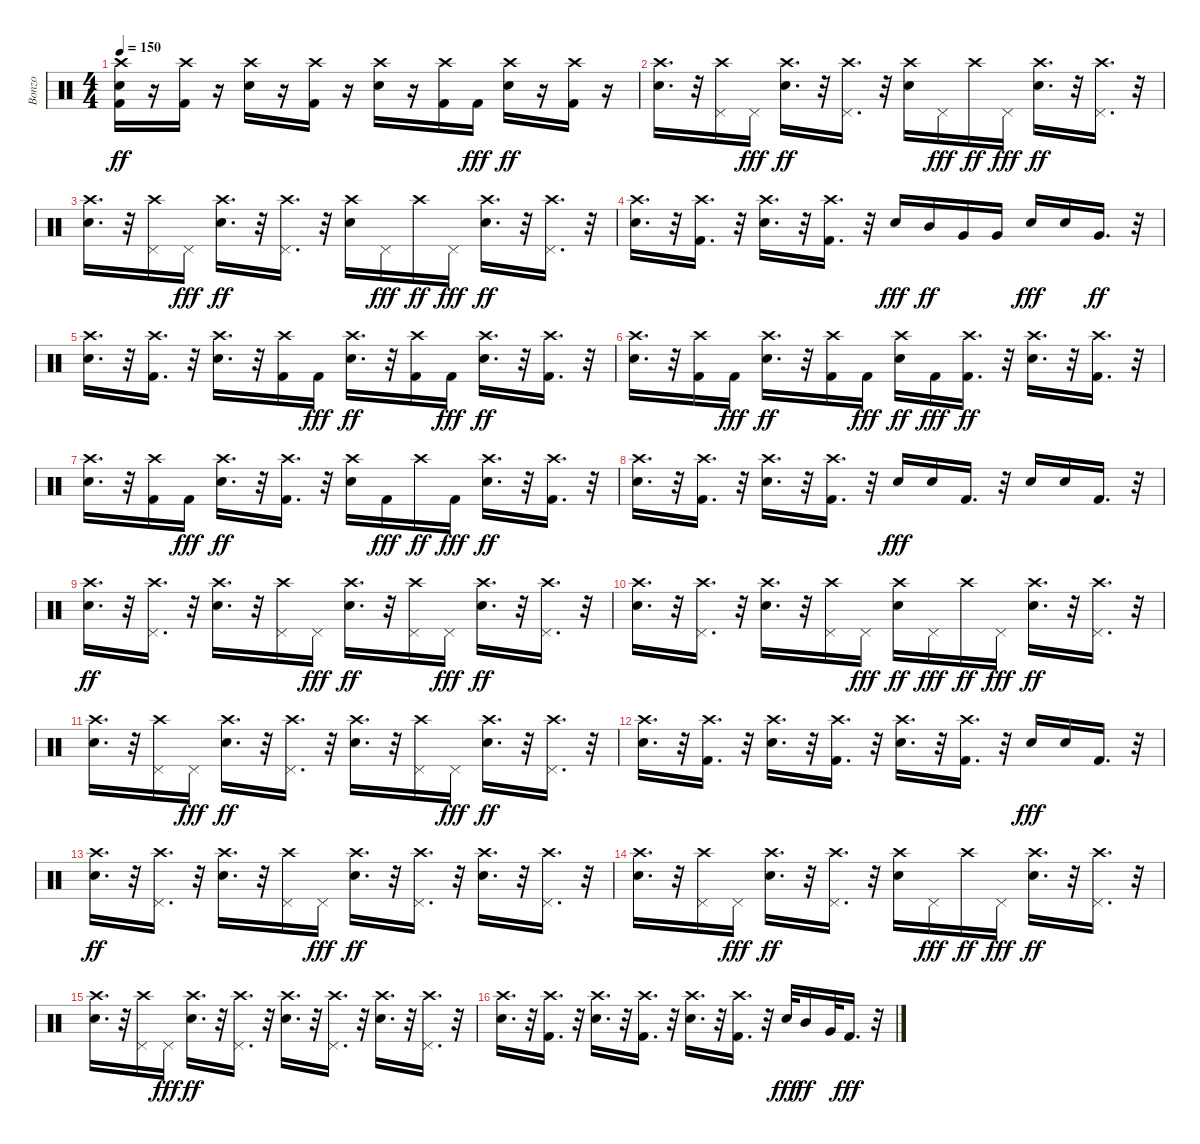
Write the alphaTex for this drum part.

\track ("Bonzo" "Bonzo") {instrument percussion}
\staff {score}
\articulation defaults
\ts (4 4)
\tempo 150
\clef neutral
\ks c
("Snare (hit) 2" "Kick (hit) 2" "Crash high (hit)").16{dy ff} r.16 ("Kick (hit) 2" "Crash high (hit)").16 r.16 ("Snare (hit) 2" "Crash high (hit)").16 r.16 ("Kick (hit) 2" "Crash high (hit)").16 r.16 ("Snare (hit) 2" "Crash high (hit)").16 r.16 ("Kick (hit) 2" "Crash high (hit)").16 "Kick (hit) 2".16{dy fff} ("Snare (hit) 2" "Crash high (hit)").16{dy ff} r.16 ("Kick (hit) 2" "Crash high (hit)").16 r.16 |
("Snare (hit) 2" "Crash high (hit)").16{d} r.32 ("Pedal Hi-Hat (hit)" "Crash high (hit)").16 "Pedal Hi-Hat (hit)".16{dy fff} ("Snare (hit) 2" "Crash high (hit)").16{d dy ff} r.32 ("Pedal Hi-Hat (hit)" "Crash high (hit)").16{d} r.32 ("Snare (hit) 2" "Crash high (hit)").16 "Pedal Hi-Hat (hit)".16{dy fff} "Crash high (hit)".16{dy ff} "Pedal Hi-Hat (hit)".16{dy fff} ("Snare (hit) 2" "Crash high (hit)").16{d dy ff} r.32 ("Pedal Hi-Hat (hit)" "Crash high (hit)").16{d} r.32 |
("Snare (hit) 2" "Crash high (hit)").16{d} r.32 ("Pedal Hi-Hat (hit)" "Crash high (hit)").16 "Pedal Hi-Hat (hit)".16{dy fff} ("Snare (hit) 2" "Crash high (hit)").16{d dy ff} r.32 ("Pedal Hi-Hat (hit)" "Crash high (hit)").16{d} r.32 ("Snare (hit) 2" "Crash high (hit)").16 "Pedal Hi-Hat (hit)".16{dy fff} "Crash high (hit)".16{dy ff} "Pedal Hi-Hat (hit)".16{dy fff} ("Snare (hit) 2" "Crash high (hit)").16{d dy ff} r.32 ("Pedal Hi-Hat (hit)" "Crash high (hit)").16{d} r.32 |
("Snare (hit) 2" "Crash high (hit)").16{d} r.32 ("Kick (hit) 2" "Crash high (hit)").16{d} r.32 ("Snare (hit) 2" "Crash high (hit)").16{d} r.32 ("Kick (hit) 2" "Crash high (hit)").16{d} r.32 "Snare (hit) 2".16{dy fff} "Mid Tom (hit)".16{dy ff} "Very Low Tom (hit)".16 "Very Low Tom (hit)".16 "Snare (hit) 2".16{dy fff} "Snare (hit) 2".16 "Very Low Tom (hit)".16{d dy ff} r.32 |
("Snare (hit) 2" "Crash high (hit)").16{d} r.32 ("Kick (hit) 2" "Crash high (hit)").16{d} r.32 ("Snare (hit) 2" "Crash high (hit)").16{d} r.32 ("Kick (hit) 2" "Crash high (hit)").16 "Kick (hit) 2".16{dy fff} ("Snare (hit) 2" "Crash high (hit)").16{d dy ff} r.32 ("Kick (hit) 2" "Crash high (hit)").16 "Kick (hit) 2".16{dy fff} ("Snare (hit) 2" "Crash high (hit)").16{d dy ff} r.32 ("Kick (hit) 2" "Crash high (hit)").16{d} r.32 |
("Snare (hit) 2" "Crash high (hit)").16{d} r.32 ("Kick (hit) 2" "Crash high (hit)").16 "Kick (hit) 2".16{dy fff} ("Snare (hit) 2" "Crash high (hit)").16{d dy ff} r.32 ("Kick (hit) 2" "Crash high (hit)").16 "Kick (hit) 2".16{dy fff} ("Snare (hit) 2" "Crash high (hit)").16{dy ff} "Kick (hit) 2".16{dy fff} ("Kick (hit) 2" "Crash high (hit)").16{d dy ff} r.32 ("Snare (hit) 2" "Crash high (hit)").16{d} r.32 ("Kick (hit) 2" "Crash high (hit)").16{d} r.32 |
("Snare (hit) 2" "Crash high (hit)").16{d} r.32 ("Kick (hit) 2" "Crash high (hit)").16 "Kick (hit) 2".16{dy fff} ("Snare (hit) 2" "Crash high (hit)").16{d dy ff} r.32 ("Kick (hit) 2" "Crash high (hit)").16{d} r.32 ("Snare (hit) 2" "Crash high (hit)").16 "Kick (hit) 2".16{dy fff} "Crash high (hit)".16{dy ff} "Kick (hit) 2".16{dy fff} ("Snare (hit) 2" "Crash high (hit)").16{d dy ff} r.32 ("Kick (hit) 2" "Crash high (hit)").16{d} r.32 |
("Snare (hit) 2" "Crash high (hit)").16{d} r.32 ("Kick (hit) 2" "Crash high (hit)").16{d} r.32 ("Snare (hit) 2" "Crash high (hit)").16{d} r.32 ("Kick (hit) 2" "Crash high (hit)").16{d} r.32 "Snare (hit) 2".16{dy fff} "Snare (hit) 2".16 "Kick (hit) 2".16{d} r.32 "Snare (hit) 2".16 "Snare (hit) 2".16 "Kick (hit) 2".16{d} r.32 |
("Snare (hit) 2" "Crash high (hit)").16{d dy ff} r.32 ("Pedal Hi-Hat (hit)" "Crash high (hit)").16{d} r.32 ("Snare (hit) 2" "Crash high (hit)").16{d} r.32 ("Pedal Hi-Hat (hit)" "Crash high (hit)").16 "Pedal Hi-Hat (hit)".16{dy fff} ("Snare (hit) 2" "Crash high (hit)").16{d dy ff} r.32 ("Pedal Hi-Hat (hit)" "Crash high (hit)").16 "Pedal Hi-Hat (hit)".16{dy fff} ("Snare (hit) 2" "Crash high (hit)").16{d dy ff} r.32 ("Pedal Hi-Hat (hit)" "Crash high (hit)").16{d} r.32 |
("Snare (hit) 2" "Crash high (hit)").16{d} r.32 ("Pedal Hi-Hat (hit)" "Crash high (hit)").16{d} r.32 ("Snare (hit) 2" "Crash high (hit)").16{d} r.32 ("Pedal Hi-Hat (hit)" "Crash high (hit)").16 "Pedal Hi-Hat (hit)".16{dy fff} ("Snare (hit) 2" "Crash high (hit)").16{dy ff} "Pedal Hi-Hat (hit)".16{dy fff} "Crash high (hit)".16{dy ff} "Pedal Hi-Hat (hit)".16{dy fff} ("Snare (hit) 2" "Crash high (hit)").16{d dy ff} r.32 ("Pedal Hi-Hat (hit)" "Crash high (hit)").16{d} r.32 |
("Snare (hit) 2" "Crash high (hit)").16{d} r.32 ("Pedal Hi-Hat (hit)" "Crash high (hit)").16 "Pedal Hi-Hat (hit)".16{dy fff} ("Snare (hit) 2" "Crash high (hit)").16{d dy ff} r.32 ("Pedal Hi-Hat (hit)" "Crash high (hit)").16{d} r.32 ("Snare (hit) 2" "Crash high (hit)").16{d} r.32 ("Pedal Hi-Hat (hit)" "Crash high (hit)").16 "Pedal Hi-Hat (hit)".16{dy fff} ("Snare (hit) 2" "Crash high (hit)").16{d dy ff} r.32 ("Pedal Hi-Hat (hit)" "Crash high (hit)").16{d} r.32 |
("Snare (hit) 2" "Crash high (hit)").16{d} r.32 ("Kick (hit) 2" "Crash high (hit)").16{d} r.32 ("Snare (hit) 2" "Crash high (hit)").16{d} r.32 ("Kick (hit) 2" "Crash high (hit)").16{d} r.32 ("Snare (hit) 2" "Crash high (hit)").16{d} r.32 ("Kick (hit) 2" "Crash high (hit)").16{d} r.32 "Snare (hit) 2".16{dy fff} "Snare (hit) 2".16 "Kick (hit) 2".16{d} r.32 |
("Snare (hit) 2" "Crash high (hit)").16{d dy ff} r.32 ("Pedal Hi-Hat (hit)" "Crash high (hit)").16{d} r.32 ("Snare (hit) 2" "Crash high (hit)").16{d} r.32 ("Pedal Hi-Hat (hit)" "Crash high (hit)").16 "Pedal Hi-Hat (hit)".16{dy fff} ("Snare (hit) 2" "Crash high (hit)").16{d dy ff} r.32 ("Pedal Hi-Hat (hit)" "Crash high (hit)").16{d} r.32 ("Snare (hit) 2" "Crash high (hit)").16{d} r.32 ("Pedal Hi-Hat (hit)" "Crash high (hit)").16{d} r.32 |
("Snare (hit) 2" "Crash high (hit)").16{d} r.32 ("Pedal Hi-Hat (hit)" "Crash high (hit)").16 "Pedal Hi-Hat (hit)".16{dy fff} ("Snare (hit) 2" "Crash high (hit)").16{d dy ff} r.32 ("Pedal Hi-Hat (hit)" "Crash high (hit)").16{d} r.32 ("Snare (hit) 2" "Crash high (hit)").16 "Pedal Hi-Hat (hit)".16{dy fff} "Crash high (hit)".16{dy ff} "Pedal Hi-Hat (hit)".16{dy fff} ("Snare (hit) 2" "Crash high (hit)").16{d dy ff} r.32 ("Pedal Hi-Hat (hit)" "Crash high (hit)").16{d} r.32 |
("Snare (hit) 2" "Crash high (hit)").16{d} r.32 ("Pedal Hi-Hat (hit)" "Crash high (hit)").16 "Pedal Hi-Hat (hit)".16{dy fff} ("Snare (hit) 2" "Crash high (hit)").16{d dy ff} r.32 ("Pedal Hi-Hat (hit)" "Crash high (hit)").16{d} r.32 ("Snare (hit) 2" "Crash high (hit)").16{d} r.32 ("Pedal Hi-Hat (hit)" "Crash high (hit)").16{d} r.32 ("Snare (hit) 2" "Crash high (hit)").16{d} r.32 ("Pedal Hi-Hat (hit)" "Crash high (hit)").16{d} r.32 |
("Snare (hit) 2" "Crash high (hit)").16{d} r.32 ("Kick (hit) 2" "Crash high (hit)").16{d} r.32 ("Snare (hit) 2" "Crash high (hit)").16{d} r.32 ("Kick (hit) 2" "Crash high (hit)").16{d} r.32 ("Snare (hit) 2" "Crash high (hit)").16{d} r.32 ("Kick (hit) 2" "Crash high (hit)").16{d} r.32 "Snare (hit) 2".32{dy fff} "Mid Tom (hit)".16{dy ff} "Very Low Tom (hit)".32 "Kick (hit) 2".16{d dy fff} r.32
